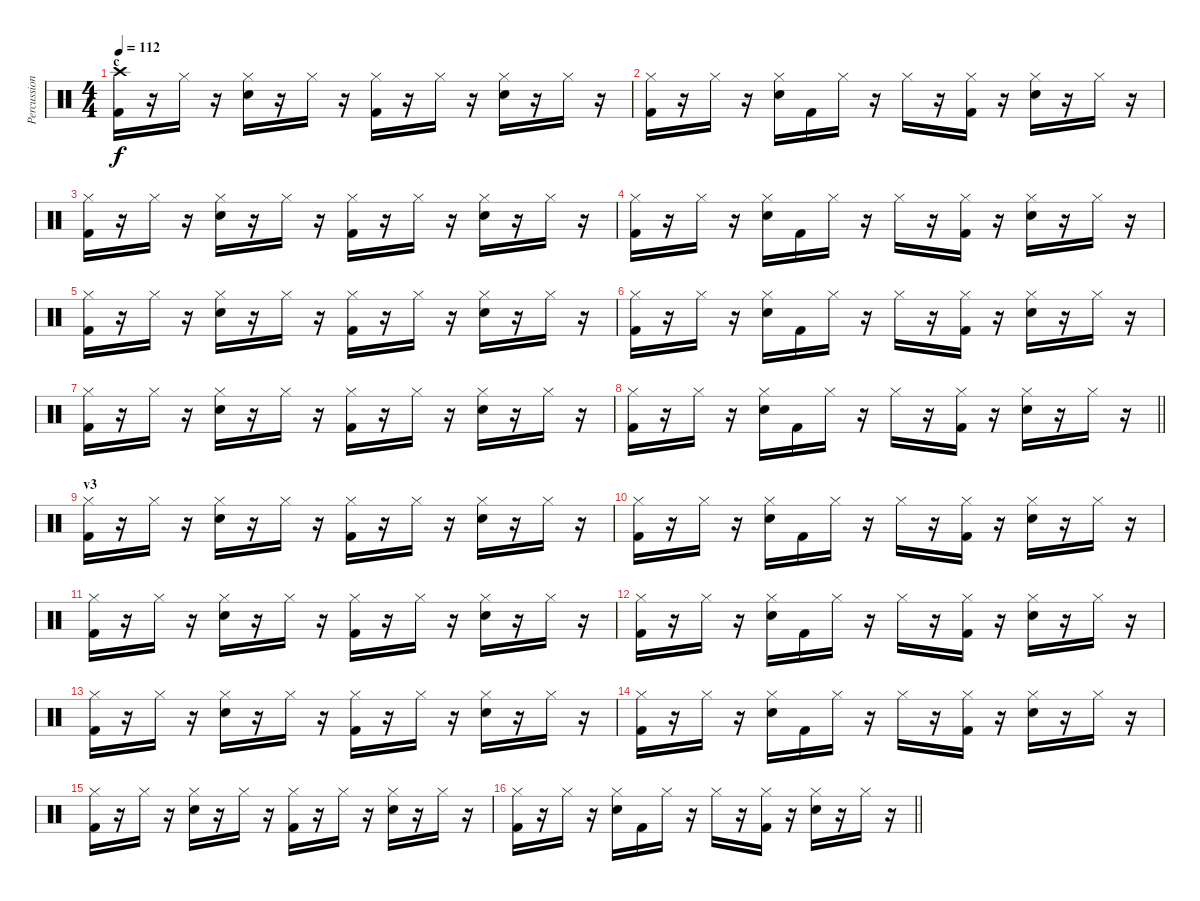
\track ("Percussion" "Percussion") {instrument percussion}
\staff {score}
\articulation defaults
\ts (4 4)
\section ("" "c")
\tempo 112
\clef neutral
\ks c
("Crash high (hit)" "Kick (hit) 2").16{dy f} r.16 "Hi-Hat (closed)".16 r.16 ("Hi-Hat (closed)" "Snare (hit) 2").16 r.16 "Hi-Hat (closed)".16 r.16 ("Hi-Hat (closed)" "Kick (hit) 2").16 r.16 "Hi-Hat (closed)".16 r.16 ("Hi-Hat (closed)" "Snare (hit) 2").16 r.16 "Hi-Hat (closed)".16 r.16 |
("Hi-Hat (closed)" "Kick (hit) 2").16 r.16 "Hi-Hat (closed)".16 r.16 ("Hi-Hat (closed)" "Snare (hit) 2").16 "Kick (hit) 2".16 "Hi-Hat (closed)".16 r.16 "Hi-Hat (closed)".16 r.16 ("Hi-Hat (closed)" "Kick (hit) 2").16 r.16 ("Hi-Hat (closed)" "Snare (hit) 2").16 r.16 "Hi-Hat (closed)".16 r.16 |
("Hi-Hat (closed)" "Kick (hit) 2").16 r.16 "Hi-Hat (closed)".16 r.16 ("Hi-Hat (closed)" "Snare (hit) 2").16 r.16 "Hi-Hat (closed)".16 r.16 ("Hi-Hat (closed)" "Kick (hit) 2").16 r.16 "Hi-Hat (closed)".16 r.16 ("Hi-Hat (closed)" "Snare (hit) 2").16 r.16 "Hi-Hat (closed)".16 r.16 |
("Hi-Hat (closed)" "Kick (hit) 2").16 r.16 "Hi-Hat (closed)".16 r.16 ("Hi-Hat (closed)" "Snare (hit) 2").16 "Kick (hit) 2".16 "Hi-Hat (closed)".16 r.16 "Hi-Hat (closed)".16 r.16 ("Hi-Hat (closed)" "Kick (hit) 2").16 r.16 ("Hi-Hat (closed)" "Snare (hit) 2").16 r.16 "Hi-Hat (closed)".16 r.16 |
("Hi-Hat (closed)" "Kick (hit) 2").16 r.16 "Hi-Hat (closed)".16 r.16 ("Hi-Hat (closed)" "Snare (hit) 2").16 r.16 "Hi-Hat (closed)".16 r.16 ("Hi-Hat (closed)" "Kick (hit) 2").16 r.16 "Hi-Hat (closed)".16 r.16 ("Hi-Hat (closed)" "Snare (hit) 2").16 r.16 "Hi-Hat (closed)".16 r.16 |
("Hi-Hat (closed)" "Kick (hit) 2").16 r.16 "Hi-Hat (closed)".16 r.16 ("Hi-Hat (closed)" "Snare (hit) 2").16 "Kick (hit) 2".16 "Hi-Hat (closed)".16 r.16 "Hi-Hat (closed)".16 r.16 ("Hi-Hat (closed)" "Kick (hit) 2").16 r.16 ("Hi-Hat (closed)" "Snare (hit) 2").16 r.16 "Hi-Hat (closed)".16 r.16 |
("Hi-Hat (closed)" "Kick (hit) 2").16 r.16 "Hi-Hat (closed)".16 r.16 ("Hi-Hat (closed)" "Snare (hit) 2").16 r.16 "Hi-Hat (closed)".16 r.16 ("Hi-Hat (closed)" "Kick (hit) 2").16 r.16 "Hi-Hat (closed)".16 r.16 ("Hi-Hat (closed)" "Snare (hit) 2").16 r.16 "Hi-Hat (closed)".16 r.16 |
\barLineRight lightlight
("Hi-Hat (closed)" "Kick (hit) 2").16 r.16 "Hi-Hat (closed)".16 r.16 ("Hi-Hat (closed)" "Snare (hit) 2").16 "Kick (hit) 2".16 "Hi-Hat (closed)".16 r.16 "Hi-Hat (closed)".16 r.16 ("Hi-Hat (closed)" "Kick (hit) 2").16 r.16 ("Hi-Hat (closed)" "Snare (hit) 2").16 r.16 "Hi-Hat (closed)".16 r.16 |
\section ("" "v3")
("Hi-Hat (closed)" "Kick (hit) 2").16 r.16 "Hi-Hat (closed)".16 r.16 ("Hi-Hat (closed)" "Snare (hit) 2").16 r.16 "Hi-Hat (closed)".16 r.16 ("Hi-Hat (closed)" "Kick (hit) 2").16 r.16 "Hi-Hat (closed)".16 r.16 ("Hi-Hat (closed)" "Snare (hit) 2").16 r.16 "Hi-Hat (closed)".16 r.16 |
("Hi-Hat (closed)" "Kick (hit) 2").16 r.16 "Hi-Hat (closed)".16 r.16 ("Hi-Hat (closed)" "Snare (hit) 2").16 "Kick (hit) 2".16 "Hi-Hat (closed)".16 r.16 "Hi-Hat (closed)".16 r.16 ("Hi-Hat (closed)" "Kick (hit) 2").16 r.16 ("Hi-Hat (closed)" "Snare (hit) 2").16 r.16 "Hi-Hat (closed)".16 r.16 |
("Hi-Hat (closed)" "Kick (hit) 2").16 r.16 "Hi-Hat (closed)".16 r.16 ("Hi-Hat (closed)" "Snare (hit) 2").16 r.16 "Hi-Hat (closed)".16 r.16 ("Hi-Hat (closed)" "Kick (hit) 2").16 r.16 "Hi-Hat (closed)".16 r.16 ("Hi-Hat (closed)" "Snare (hit) 2").16 r.16 "Hi-Hat (closed)".16 r.16 |
("Hi-Hat (closed)" "Kick (hit) 2").16 r.16 "Hi-Hat (closed)".16 r.16 ("Hi-Hat (closed)" "Snare (hit) 2").16 "Kick (hit) 2".16 "Hi-Hat (closed)".16 r.16 "Hi-Hat (closed)".16 r.16 ("Hi-Hat (closed)" "Kick (hit) 2").16 r.16 ("Hi-Hat (closed)" "Snare (hit) 2").16 r.16 "Hi-Hat (closed)".16 r.16 |
("Hi-Hat (closed)" "Kick (hit) 2").16 r.16 "Hi-Hat (closed)".16 r.16 ("Hi-Hat (closed)" "Snare (hit) 2").16 r.16 "Hi-Hat (closed)".16 r.16 ("Hi-Hat (closed)" "Kick (hit) 2").16 r.16 "Hi-Hat (closed)".16 r.16 ("Hi-Hat (closed)" "Snare (hit) 2").16 r.16 "Hi-Hat (closed)".16 r.16 |
("Hi-Hat (closed)" "Kick (hit) 2").16 r.16 "Hi-Hat (closed)".16 r.16 ("Hi-Hat (closed)" "Snare (hit) 2").16 "Kick (hit) 2".16 "Hi-Hat (closed)".16 r.16 "Hi-Hat (closed)".16 r.16 ("Hi-Hat (closed)" "Kick (hit) 2").16 r.16 ("Hi-Hat (closed)" "Snare (hit) 2").16 r.16 "Hi-Hat (closed)".16 r.16 |
("Hi-Hat (closed)" "Kick (hit) 2").16 r.16 "Hi-Hat (closed)".16 r.16 ("Hi-Hat (closed)" "Snare (hit) 2").16 r.16 "Hi-Hat (closed)".16 r.16 ("Hi-Hat (closed)" "Kick (hit) 2").16 r.16 "Hi-Hat (closed)".16 r.16 ("Hi-Hat (closed)" "Snare (hit) 2").16 r.16 "Hi-Hat (closed)".16 r.16 |
\barLineRight lightlight
("Hi-Hat (closed)" "Kick (hit) 2").16 r.16 "Hi-Hat (closed)".16 r.16 ("Hi-Hat (closed)" "Snare (hit) 2").16 "Kick (hit) 2".16 "Hi-Hat (closed)".16 r.16 "Hi-Hat (closed)".16 r.16 ("Hi-Hat (closed)" "Kick (hit) 2").16 r.16 ("Hi-Hat (closed)" "Snare (hit) 2").16 r.16 "Hi-Hat (closed)".16 r.16
